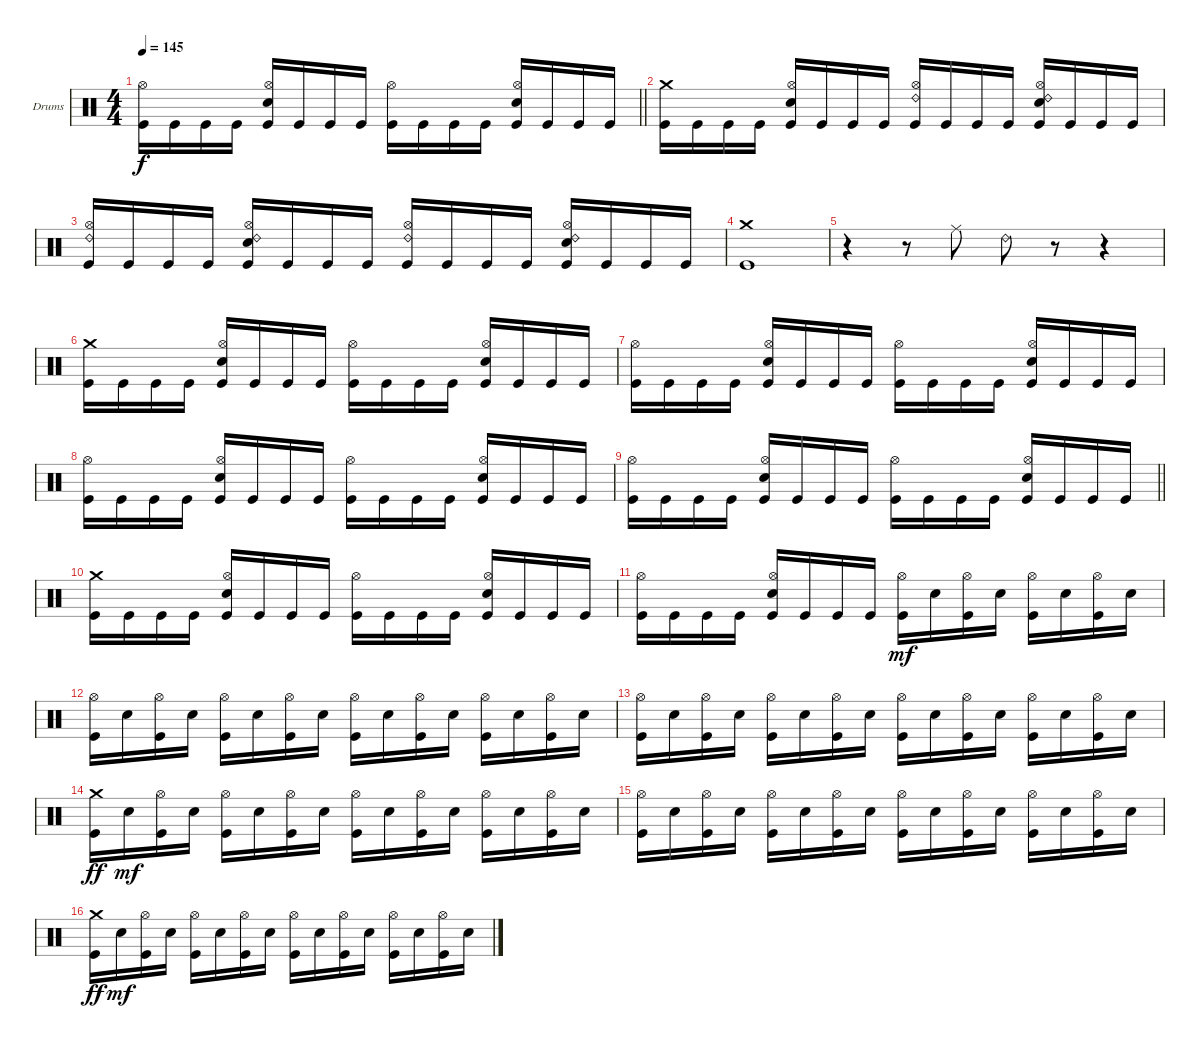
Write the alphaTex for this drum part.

\defaultSystemsLayout 4
\bracketExtendMode groupsimilarinstruments
\firstSystemTrackNameOrientation horizontal
\otherSystemsTrackNameOrientation horizontal
\track ("Drums" "Drums") {instrument percussion}
\staff {score}
\articulation defaults
\ts (4 4)
\tempo 145
\clef neutral
\barLineRight lightlight
\ks c
("Kick (hit)" "Hi-Hat (open)").16{dy f} "Kick (hit)".16 "Kick (hit)".16 "Kick (hit)".16 ("Snare (hit) 2" "Hi-Hat (open)" "Kick (hit)").16 "Kick (hit)".16 "Kick (hit)".16 "Kick (hit)".16 ("Kick (hit)" "Hi-Hat (open)").16 "Kick (hit)".16 "Kick (hit)".16 "Kick (hit)".16 ("Snare (hit) 2" "Hi-Hat (open)" "Kick (hit)").16 "Kick (hit)".16 "Kick (hit)".16 "Kick (hit)".16 |
("Kick (hit)" "Crash medium (hit)").16 "Kick (hit)".16 "Kick (hit)".16 "Kick (hit)".16 ("Snare (hit) 2" "Hi-Hat (open)" "Kick (hit)").16 "Kick (hit)".16 "Kick (hit)".16 "Kick (hit)".16 ("Kick (hit)" "Hi-Hat (open)" "Ride (bell) 2").16 "Kick (hit)".16 "Kick (hit)".16 "Kick (hit)".16 ("Snare (hit) 2" "Hi-Hat (open)" "Ride (bell) 2" "Kick (hit)").16 "Kick (hit)".16 "Kick (hit)".16 "Kick (hit)".16 |
("Kick (hit)" "Hi-Hat (open)" "Ride (bell) 2").16 "Kick (hit)".16 "Kick (hit)".16 "Kick (hit)".16 ("Snare (hit) 2" "Hi-Hat (open)" "Ride (bell) 2" "Kick (hit)").16 "Kick (hit)".16 "Kick (hit)".16 "Kick (hit)".16 ("Kick (hit)" "Hi-Hat (open)" "Ride (bell) 2").16 "Kick (hit)".16 "Kick (hit)".16 "Kick (hit)".16 ("Snare (hit) 2" "Hi-Hat (open)" "Kick (hit)" "Ride (bell) 2").16 "Kick (hit)".16 "Kick (hit)".16 "Kick (hit)".16 |
("Kick (hit)" "Crash medium (hit)").1 |
r.4 r.8 "Ride (middle)".8 "Ride (bell) 2".8 r.8 r.4 |
("Kick (hit)" "Crash medium (hit)").16 "Kick (hit)".16 "Kick (hit)".16 "Kick (hit)".16 ("Snare (hit) 2" "Hi-Hat (open)" "Kick (hit)").16 "Kick (hit)".16 "Kick (hit)".16 "Kick (hit)".16 ("Kick (hit)" "Hi-Hat (open)").16 "Kick (hit)".16 "Kick (hit)".16 "Kick (hit)".16 ("Snare (hit) 2" "Hi-Hat (open)" "Kick (hit)").16 "Kick (hit)".16 "Kick (hit)".16 "Kick (hit)".16 |
("Kick (hit)" "Hi-Hat (open)").16 "Kick (hit)".16 "Kick (hit)".16 "Kick (hit)".16 ("Snare (hit) 2" "Hi-Hat (open)" "Kick (hit)").16 "Kick (hit)".16 "Kick (hit)".16 "Kick (hit)".16 ("Kick (hit)" "Hi-Hat (open)").16 "Kick (hit)".16 "Kick (hit)".16 "Kick (hit)".16 ("Snare (hit) 2" "Hi-Hat (open)" "Kick (hit)").16 "Kick (hit)".16 "Kick (hit)".16 "Kick (hit)".16 |
("Kick (hit)" "Hi-Hat (open)").16 "Kick (hit)".16 "Kick (hit)".16 "Kick (hit)".16 ("Snare (hit) 2" "Hi-Hat (open)" "Kick (hit)").16 "Kick (hit)".16 "Kick (hit)".16 "Kick (hit)".16 ("Kick (hit)" "Hi-Hat (open)").16 "Kick (hit)".16 "Kick (hit)".16 "Kick (hit)".16 ("Snare (hit) 2" "Hi-Hat (open)" "Kick (hit)").16 "Kick (hit)".16 "Kick (hit)".16 "Kick (hit)".16 |
\barLineRight lightlight
("Kick (hit)" "Hi-Hat (open)").16 "Kick (hit)".16 "Kick (hit)".16 "Kick (hit)".16 ("Snare (hit) 2" "Hi-Hat (open)" "Kick (hit)").16 "Kick (hit)".16 "Kick (hit)".16 "Kick (hit)".16 ("Kick (hit)" "Hi-Hat (open)").16 "Kick (hit)".16 "Kick (hit)".16 "Kick (hit)".16 ("Snare (hit) 2" "Hi-Hat (open)" "Kick (hit)").16 "Kick (hit)".16 "Kick (hit)".16 "Kick (hit)".16 |
("Kick (hit)" "Crash medium (hit)").16 "Kick (hit)".16 "Kick (hit)".16 "Kick (hit)".16 ("Snare (hit) 2" "Hi-Hat (open)" "Kick (hit)").16 "Kick (hit)".16 "Kick (hit)".16 "Kick (hit)".16 ("Kick (hit)" "Hi-Hat (open)").16 "Kick (hit)".16 "Kick (hit)".16 "Kick (hit)".16 ("Snare (hit) 2" "Hi-Hat (open)" "Kick (hit)").16 "Kick (hit)".16 "Kick (hit)".16 "Kick (hit)".16 |
("Kick (hit)" "Hi-Hat (open)").16 "Kick (hit)".16 "Kick (hit)".16 "Kick (hit)".16 ("Snare (hit) 2" "Hi-Hat (open)" "Kick (hit)").16 "Kick (hit)".16 "Kick (hit)".16 "Kick (hit)".16 ("Kick (hit)" "Hi-Hat (open)").16{dy mf} "Snare (hit) 2".16 ("Kick (hit)" "Hi-Hat (open)").16 "Snare (hit) 2".16 ("Kick (hit)" "Hi-Hat (open)").16 "Snare (hit) 2".16 ("Kick (hit)" "Hi-Hat (open)").16 "Snare (hit) 2".16 |
("Kick (hit)" "Hi-Hat (open)").16 "Snare (hit) 2".16 ("Kick (hit)" "Hi-Hat (open)").16 "Snare (hit) 2".16 ("Kick (hit)" "Hi-Hat (open)").16 "Snare (hit) 2".16 ("Kick (hit)" "Hi-Hat (open)").16 "Snare (hit) 2".16 ("Kick (hit)" "Hi-Hat (open)").16 "Snare (hit) 2".16 ("Kick (hit)" "Hi-Hat (open)").16 "Snare (hit) 2".16 ("Kick (hit)" "Hi-Hat (open)").16 "Snare (hit) 2".16 ("Kick (hit)" "Hi-Hat (open)").16 "Snare (hit) 2".16 |
("Kick (hit)" "Hi-Hat (open)").16 "Snare (hit) 2".16 ("Kick (hit)" "Hi-Hat (open)").16 "Snare (hit) 2".16 ("Kick (hit)" "Hi-Hat (open)").16 "Snare (hit) 2".16 ("Kick (hit)" "Hi-Hat (open)").16 "Snare (hit) 2".16 ("Kick (hit)" "Hi-Hat (open)").16 "Snare (hit) 2".16 ("Kick (hit)" "Hi-Hat (open)").16 "Snare (hit) 2".16 ("Kick (hit)" "Hi-Hat (open)").16 "Snare (hit) 2".16 ("Kick (hit)" "Hi-Hat (open)").16 "Snare (hit) 2".16 |
("Kick (hit)" "Crash medium (hit)").16{dy ff} "Snare (hit) 2".16{dy mf} ("Kick (hit)" "Hi-Hat (open)").16 "Snare (hit) 2".16 ("Kick (hit)" "Hi-Hat (open)").16 "Snare (hit) 2".16 ("Kick (hit)" "Hi-Hat (open)").16 "Snare (hit) 2".16 ("Kick (hit)" "Hi-Hat (open)").16 "Snare (hit) 2".16 ("Kick (hit)" "Hi-Hat (open)").16 "Snare (hit) 2".16 ("Kick (hit)" "Hi-Hat (open)").16 "Snare (hit) 2".16 ("Kick (hit)" "Hi-Hat (open)").16 "Snare (hit) 2".16 |
("Kick (hit)" "Hi-Hat (open)").16 "Snare (hit) 2".16 ("Kick (hit)" "Hi-Hat (open)").16 "Snare (hit) 2".16 ("Kick (hit)" "Hi-Hat (open)").16 "Snare (hit) 2".16 ("Kick (hit)" "Hi-Hat (open)").16 "Snare (hit) 2".16 ("Kick (hit)" "Hi-Hat (open)").16 "Snare (hit) 2".16 ("Kick (hit)" "Hi-Hat (open)").16 "Snare (hit) 2".16 ("Kick (hit)" "Hi-Hat (open)").16 "Snare (hit) 2".16 ("Kick (hit)" "Hi-Hat (open)").16 "Snare (hit) 2".16 |
("Kick (hit)" "Crash medium (hit)").16{dy ff} "Snare (hit) 2".16{dy mf} ("Kick (hit)" "Hi-Hat (open)").16 "Snare (hit) 2".16 ("Kick (hit)" "Hi-Hat (open)").16 "Snare (hit) 2".16 ("Kick (hit)" "Hi-Hat (open)").16 "Snare (hit) 2".16 ("Kick (hit)" "Hi-Hat (open)").16 "Snare (hit) 2".16 ("Kick (hit)" "Hi-Hat (open)").16 "Snare (hit) 2".16 ("Kick (hit)" "Hi-Hat (open)").16 "Snare (hit) 2".16 ("Kick (hit)" "Hi-Hat (open)").16 "Snare (hit) 2".16
